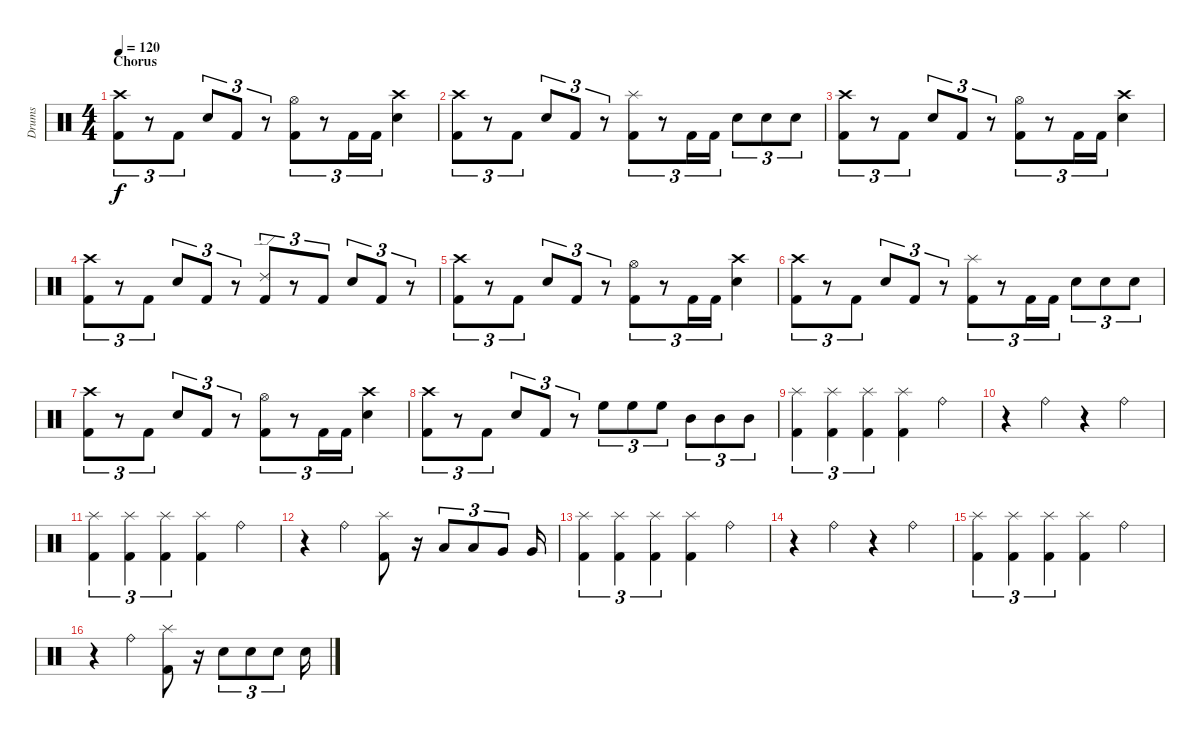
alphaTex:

\track ("Drums" "Drums") {instrument percussion}
\staff {score}
\articulation defaults
\ts (4 4)
\section ("" "Chorus")
\tempo 120
\clef neutral
\ks c
("Crash high (hit)" "Kick (hit) 2").8{tu (3 2) dy f} r.8{tu (3 2)} "Kick (hit) 2".8{tu (3 2)} "Snare (hit) 2".8{tu (3 2)} "Kick (hit) 2".8{tu (3 2)} r.8{tu (3 2)} ("Hi-Hat (open)" "Kick (hit) 2").8{tu (3 2)} r.8{tu (3 2)} "Kick (hit) 2".16{tu (3 2)} "Kick (hit) 2".16{tu (3 2)} ("Crash high (hit)" "Snare (hit) 2").4 |
("Crash high (hit)" "Kick (hit) 2").8{tu (3 2)} r.8{tu (3 2)} "Kick (hit) 2".8{tu (3 2)} "Snare (hit) 2".8{tu (3 2)} "Kick (hit) 2".8{tu (3 2)} r.8{tu (3 2)} ("Splash (hit)" "Kick (hit) 2").8{tu (3 2)} r.8{tu (3 2)} "Kick (hit) 2".16{tu (3 2)} "Kick (hit) 2".16{tu (3 2)} "Snare (hit) 2".8{tu (3 2)} "Snare (hit) 2".8{tu (3 2)} "Snare (hit) 2".8{tu (3 2)} |
("Crash high (hit)" "Kick (hit) 2").8{tu (3 2)} r.8{tu (3 2)} "Kick (hit) 2".8{tu (3 2)} "Snare (hit) 2".8{tu (3 2)} "Kick (hit) 2".8{tu (3 2)} r.8{tu (3 2)} ("Hi-Hat (open)" "Kick (hit) 2").8{tu (3 2)} r.8{tu (3 2)} "Kick (hit) 2".16{tu (3 2)} "Kick (hit) 2".16{tu (3 2)} ("Crash high (hit)" "Snare (hit) 2").4 |
("Crash high (hit)" "Kick (hit) 2").8{tu (3 2)} r.8{tu (3 2)} "Kick (hit) 2".8{tu (3 2)} "Snare (hit) 2".8{tu (3 2)} "Kick (hit) 2".8{tu (3 2)} r.8{tu (3 2)} ("Ride (edge) 2" "Kick (hit) 2").8{tu (3 2)} r.8{tu (3 2)} "Kick (hit) 2".8{tu (3 2)} "Snare (hit) 2".8{tu (3 2)} "Kick (hit) 2".8{tu (3 2)} r.8{tu (3 2)} |
("Crash high (hit)" "Kick (hit) 2").8{tu (3 2)} r.8{tu (3 2)} "Kick (hit) 2".8{tu (3 2)} "Snare (hit) 2".8{tu (3 2)} "Kick (hit) 2".8{tu (3 2)} r.8{tu (3 2)} ("Hi-Hat (open)" "Kick (hit) 2").8{tu (3 2)} r.8{tu (3 2)} "Kick (hit) 2".16{tu (3 2)} "Kick (hit) 2".16{tu (3 2)} ("Crash high (hit)" "Snare (hit) 2").4 |
("Crash high (hit)" "Kick (hit) 2").8{tu (3 2)} r.8{tu (3 2)} "Kick (hit) 2".8{tu (3 2)} "Snare (hit) 2".8{tu (3 2)} "Kick (hit) 2".8{tu (3 2)} r.8{tu (3 2)} ("Splash (hit)" "Kick (hit) 2").8{tu (3 2)} r.8{tu (3 2)} "Kick (hit) 2".16{tu (3 2)} "Kick (hit) 2".16{tu (3 2)} "Snare (hit) 2".8{tu (3 2)} "Snare (hit) 2".8{tu (3 2)} "Snare (hit) 2".8{tu (3 2)} |
("Crash high (hit)" "Kick (hit) 2").8{tu (3 2)} r.8{tu (3 2)} "Kick (hit) 2".8{tu (3 2)} "Snare (hit) 2".8{tu (3 2)} "Kick (hit) 2".8{tu (3 2)} r.8{tu (3 2)} ("Hi-Hat (open)" "Kick (hit) 2").8{tu (3 2)} r.8{tu (3 2)} "Kick (hit) 2".16{tu (3 2)} "Kick (hit) 2".16{tu (3 2)} ("Crash high (hit)" "Snare (hit) 2").4 |
("Crash high (hit)" "Kick (hit) 2").8{tu (3 2)} r.8{tu (3 2)} "Kick (hit) 2".8{tu (3 2)} "Snare (hit) 2".8{tu (3 2)} "Kick (hit) 2".8{tu (3 2)} r.8{tu (3 2)} "High Floor Tom (hit)".8{tu (3 2)} "High Floor Tom (hit)".8{tu (3 2)} "High Floor Tom (hit)".8{tu (3 2)} "Mid Tom (hit)".8{tu (3 2)} "Mid Tom (hit)".8{tu (3 2)} "Mid Tom (hit)".8{tu (3 2)} |
("Splash (hit)" "Kick (hit) 2").4{tu (3 2)} ("Splash (hit)" "Kick (hit) 2").4{tu (3 2)} ("Splash (hit)" "Kick (hit) 2").4{tu (3 2)} ("Splash (hit)" "Kick (hit) 2").4 "Ride (bell)".4 |
r.4 "Ride (bell)".4 r.4 "Ride (bell)".4 |
("Splash (hit)" "Kick (hit) 2").4{tu (3 2)} ("Splash (hit)" "Kick (hit) 2").4{tu (3 2)} ("Splash (hit)" "Kick (hit) 2").4{tu (3 2)} ("Splash (hit)" "Kick (hit) 2").4 "Ride (bell)".4 |
r.4 "Ride (bell)".4 ("Splash (hit)" "Kick (hit) 2").8 r.16 "Low Tom (hit)".8{tu (3 2)} "Low Tom (hit)".8{tu (3 2)} "Very Low Tom (hit)".8{tu (3 2)} "Very Low Tom (hit)".16 |
("Splash (hit)" "Kick (hit) 2").4{tu (3 2)} ("Splash (hit)" "Kick (hit) 2").4{tu (3 2)} ("Splash (hit)" "Kick (hit) 2").4{tu (3 2)} ("Splash (hit)" "Kick (hit) 2").4 "Ride (bell)".4 |
r.4 "Ride (bell)".4 r.4 "Ride (bell)".4 |
("Splash (hit)" "Kick (hit) 2").4{tu (3 2)} ("Splash (hit)" "Kick (hit) 2").4{tu (3 2)} ("Splash (hit)" "Kick (hit) 2").4{tu (3 2)} ("Splash (hit)" "Kick (hit) 2").4 "Ride (bell)".4 |
r.4 "Ride (bell)".4 ("Splash (hit)" "Kick (hit) 2").8 r.16 "Snare (hit) 2".8{tu (3 2)} "Snare (hit) 2".8{tu (3 2)} "Snare (hit) 2".8{tu (3 2)} "Snare (hit) 2".16
